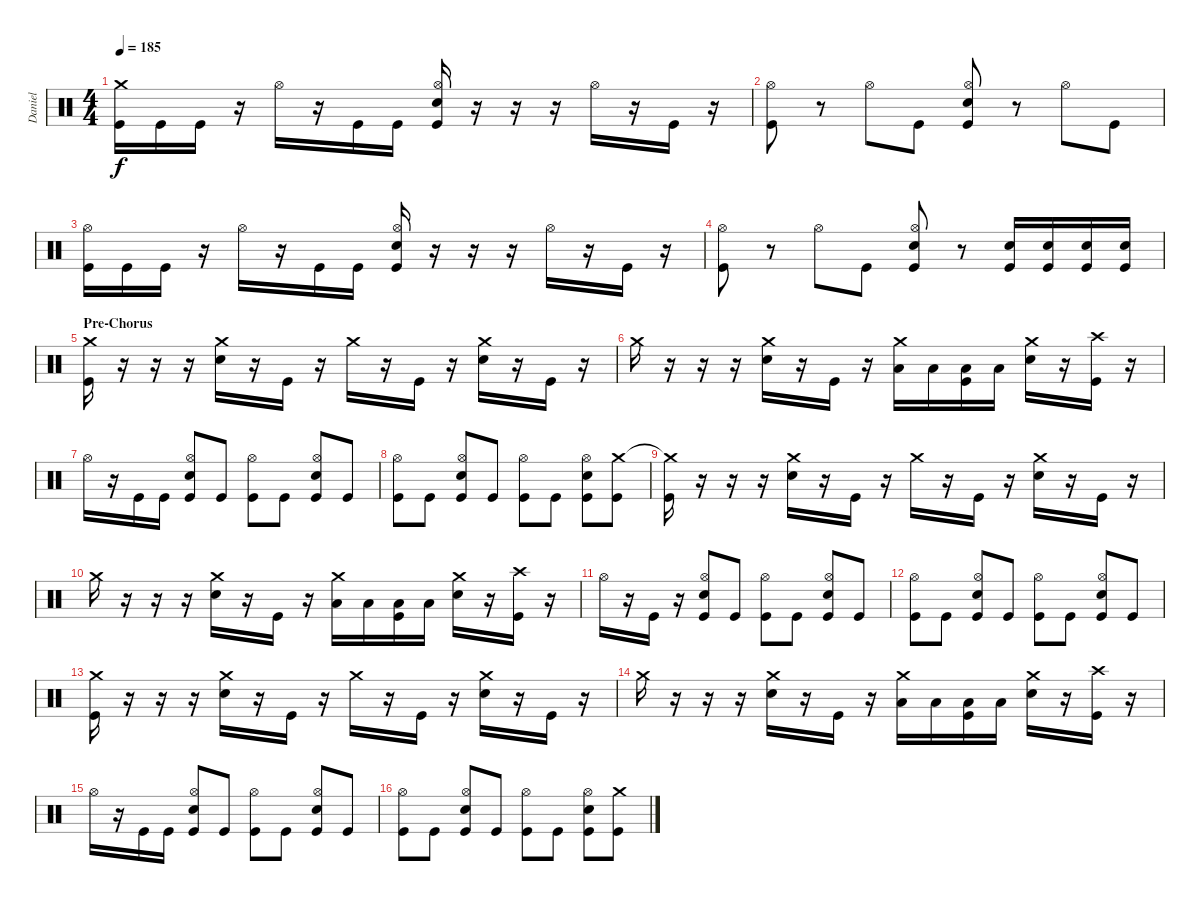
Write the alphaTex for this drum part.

\track ("Daniel" "Daniel") {instrument percussion}
\staff {score}
\articulation defaults
\ts (4 4)
\tempo 185
\clef neutral
\ks c
("Crash medium (hit)" "Kick (hit)").16{dy f} "Kick (hit)".16 "Kick (hit)".16 r.16 "Hi-Hat (open)".16 r.16 "Kick (hit)".16 "Kick (hit)".16 ("Hi-Hat (open)" "Snare (hit) 2" "Kick (hit)").16 r.16 r.16 r.16 "Hi-Hat (open)".16 r.16 "Kick (hit)".16 r.16 |
("Hi-Hat (open)" "Kick (hit)").8 r.8 "Hi-Hat (open)".8 "Kick (hit)".8 ("Hi-Hat (open)" "Snare (hit) 2" "Kick (hit)").8 r.8 "Hi-Hat (open)".8 "Kick (hit)".8 |
("Hi-Hat (open)" "Kick (hit)").16 "Kick (hit)".16 "Kick (hit)".16 r.16 "Hi-Hat (open)".16 r.16 "Kick (hit)".16 "Kick (hit)".16 ("Hi-Hat (open)" "Snare (hit) 2" "Kick (hit)").16 r.16 r.16 r.16 "Hi-Hat (open)".16 r.16 "Kick (hit)".16 r.16 |
("Hi-Hat (open)" "Kick (hit)").8 r.8 "Hi-Hat (open)".8 "Kick (hit)".8 ("Hi-Hat (open)" "Snare (hit) 2" "Kick (hit)").8 r.8 ("Snare (hit) 2" "Kick (hit)").16 ("Snare (hit) 2" "Kick (hit)").16 ("Snare (hit) 2" "Kick (hit)").16 ("Snare (hit) 2" "Kick (hit)").16 |
\section ("" "Pre-Chorus")
("Crash medium (hit)" "Kick (hit)").16 r.16 r.16 r.16 ("Crash medium (hit)" "Snare (hit) 2").16 r.16 "Kick (hit)".16 r.16 "Crash medium (hit)".16 r.16 "Kick (hit)".16 r.16 ("Crash medium (hit)" "Snare (hit) 2").16 r.16 "Kick (hit)".16 r.16 |
"Crash medium (hit)".16 r.16 r.16 r.16 ("Crash medium (hit)" "Snare (hit) 2").16 r.16 "Kick (hit)".16 r.16 ("Crash medium (hit)" "Low Floor Tom (hit)").16 "Low Floor Tom (hit)".16 ("Low Floor Tom (hit)" "Kick (hit)").16 "Low Floor Tom (hit)".16 ("Crash medium (hit)" "Snare (hit) 2").16 r.16 ("Crash high (hit)" "Kick (hit)").16 r.16 |
"Hi-Hat (open)".16 r.16 "Kick (hit)".16 "Kick (hit)".16 ("Hi-Hat (open)" "Snare (hit) 2" "Kick (hit)").8 "Kick (hit)".8 ("Hi-Hat (open)" "Kick (hit)").8 "Kick (hit)".8 ("Hi-Hat (open)" "Snare (hit) 2" "Kick (hit)").8 "Kick (hit)".8 |
("Hi-Hat (open)" "Kick (hit)").8 "Kick (hit)".8 ("Hi-Hat (open)" "Snare (hit) 2" "Kick (hit)").8 "Kick (hit)".8 ("Hi-Hat (open)" "Kick (hit)").8 "Kick (hit)".8 ("Hi-Hat (open)" "Snare (hit) 2" "Kick (hit)").8 ("Crash medium (hit)" "Kick (hit)").8 |
("Crash medium (hit)"{t} "Kick (hit)").16 r.16 r.16 r.16 ("Crash medium (hit)" "Snare (hit) 2").16 r.16 "Kick (hit)".16 r.16 "Crash medium (hit)".16 r.16 "Kick (hit)".16 r.16 ("Crash medium (hit)" "Snare (hit) 2").16 r.16 "Kick (hit)".16 r.16 |
"Crash medium (hit)".16 r.16 r.16 r.16 ("Crash medium (hit)" "Snare (hit) 2").16 r.16 "Kick (hit)".16 r.16 ("Crash medium (hit)" "Low Floor Tom (hit)").16 "Low Floor Tom (hit)".16 ("Low Floor Tom (hit)" "Kick (hit)").16 "Low Floor Tom (hit)".16 ("Crash medium (hit)" "Snare (hit) 2").16 r.16 ("Crash high (hit)" "Kick (hit)").16 r.16 |
"Hi-Hat (open)".16 r.16 "Kick (hit)".16 r.16 ("Hi-Hat (open)" "Snare (hit) 2" "Kick (hit)").8 "Kick (hit)".8 ("Hi-Hat (open)" "Kick (hit)").8 "Kick (hit)".8 ("Hi-Hat (open)" "Snare (hit) 2" "Kick (hit)").8 "Kick (hit)".8 |
("Hi-Hat (open)" "Kick (hit)").8 "Kick (hit)".8 ("Hi-Hat (open)" "Snare (hit) 2" "Kick (hit)").8 "Kick (hit)".8 ("Hi-Hat (open)" "Kick (hit)").8 "Kick (hit)".8 ("Hi-Hat (open)" "Snare (hit) 2" "Kick (hit)").8 "Kick (hit)".8 |
("Crash medium (hit)" "Kick (hit)").16 r.16 r.16 r.16 ("Crash medium (hit)" "Snare (hit) 2").16 r.16 "Kick (hit)".16 r.16 "Crash medium (hit)".16 r.16 "Kick (hit)".16 r.16 ("Crash medium (hit)" "Snare (hit) 2").16 r.16 "Kick (hit)".16 r.16 |
"Crash medium (hit)".16 r.16 r.16 r.16 ("Crash medium (hit)" "Snare (hit) 2").16 r.16 "Kick (hit)".16 r.16 ("Crash medium (hit)" "Low Floor Tom (hit)").16 "Low Floor Tom (hit)".16 ("Low Floor Tom (hit)" "Kick (hit)").16 "Low Floor Tom (hit)".16 ("Crash medium (hit)" "Snare (hit) 2").16 r.16 ("Crash high (hit)" "Kick (hit)").16 r.16 |
"Hi-Hat (open)".16 r.16 "Kick (hit)".16 "Kick (hit)".16 ("Hi-Hat (open)" "Snare (hit) 2" "Kick (hit)").8 "Kick (hit)".8 ("Hi-Hat (open)" "Kick (hit)").8 "Kick (hit)".8 ("Hi-Hat (open)" "Snare (hit) 2" "Kick (hit)").8 "Kick (hit)".8 |
("Hi-Hat (open)" "Kick (hit)").8 "Kick (hit)".8 ("Hi-Hat (open)" "Snare (hit) 2" "Kick (hit)").8 "Kick (hit)".8 ("Hi-Hat (open)" "Kick (hit)").8 "Kick (hit)".8 ("Hi-Hat (open)" "Snare (hit) 2" "Kick (hit)").8 ("Crash medium (hit)" "Kick (hit)").8
